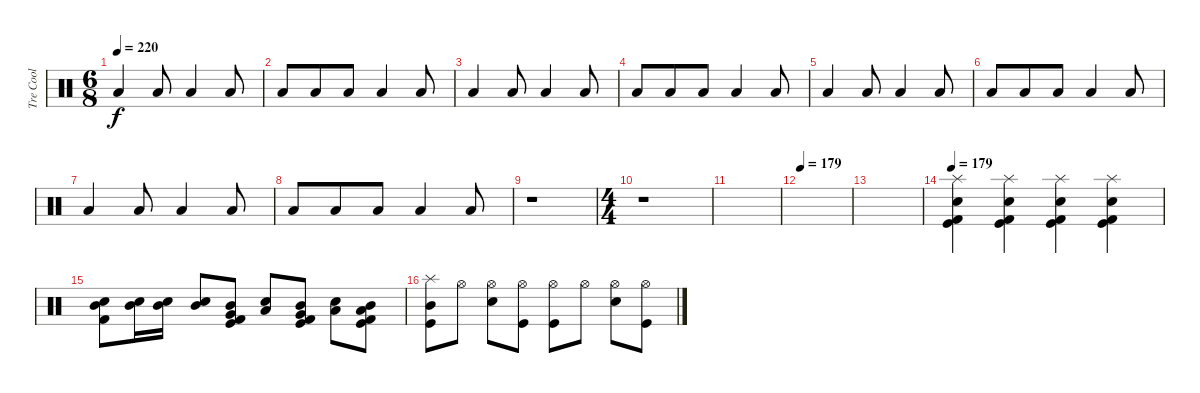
\track ("Tre Cool" "Tre Cool") {instrument percussion}
\staff {score}
\articulation defaults
\ts (6 8)
\tempo 220
\clef neutral
\ks c "Low Floor Tom (hit)".4{dy f} "Low Floor Tom (hit)".8 "Low Tom (hit)".4 "Low Tom (hit)".8
|
"Low Floor Tom (hit)".8 "Low Floor Tom (hit)".8 "Low Floor Tom (hit)".8 "Low Tom (hit)".4 "Low Tom (hit)".8 |
"Low Floor Tom (hit)".4 "Low Floor Tom (hit)".8 "Low Tom (hit)".4 "Low Tom (hit)".8 |
"Low Floor Tom (hit)".8 "Low Floor Tom (hit)".8 "Low Floor Tom (hit)".8 "Low Tom (hit)".4 "Low Tom (hit)".8 |
"Low Floor Tom (hit)".4{volume 0} "Low Floor Tom (hit)".8 "Low Tom (hit)".4 "Low Tom (hit)".8 |
"Low Floor Tom (hit)".8 "Low Floor Tom (hit)".8 "Low Floor Tom (hit)".8 "Low Tom (hit)".4 "Low Tom (hit)".8 |
"Low Floor Tom (hit)".4 "Low Floor Tom (hit)".8 "Low Tom (hit)".4 "Low Tom (hit)".8 |
"Low Floor Tom (hit)".8 "Low Floor Tom (hit)".8 "Low Floor Tom (hit)".8 "Low Tom (hit)".4 "Low Tom (hit)".8 |
r.1 |
\ts (4 4)
r.1 |
|
\tempo 179
|
|
\tempo 179
("Splash (hit)" "Snare (hit) 2" "Kick (hit) 2" "Kick (hit)").4{volume 16} ("Splash (hit)" "Snare (hit) 2" "Kick (hit) 2" "Kick (hit)").4 ("Splash (hit)" "Snare (hit) 2" "Kick (hit) 2" "Kick (hit)").4 ("Splash (hit)" "Snare (hit) 2" "Kick (hit) 2" "Kick (hit)").4 |
("Mid Tom (hit)" "Kick (hit) 2" "Snare (hit) 2").8 ("Mid Tom (hit)" "Snare (hit) 2").16 ("Mid Tom (hit)" "Snare (hit) 2").16 ("Mid Tom (hit)" "Snare (hit) 2").8 ("Mid Tom (hit)" "Kick (hit) 2" "Kick (hit)" "Very Low Tom (hit)").8 ("Snare (hit) 2" "Low Floor Tom (hit)").8 ("Mid Tom (hit)" "Kick (hit) 2" "Kick (hit)" "Very Low Tom (hit)").8 ("Snare (hit) 2" "Low Tom (hit)").8 ("Kick (hit)" "Kick (hit) 2" "Mid Tom (hit)" "Low Tom (hit)").8 |
("Splash (hit)" "Mid Tom (hit)" "Kick (hit)").8 "Hi-Hat (open)".8 ("Hi-Hat (open)" "Snare (hit) 2").8 ("Hi-Hat (open)" "Kick (hit)").8 ("Hi-Hat (open)" "Kick (hit)").8 "Hi-Hat (open)".8 ("Hi-Hat (open)" "Snare (hit) 2").8 ("Hi-Hat (open)" "Kick (hit)").8
